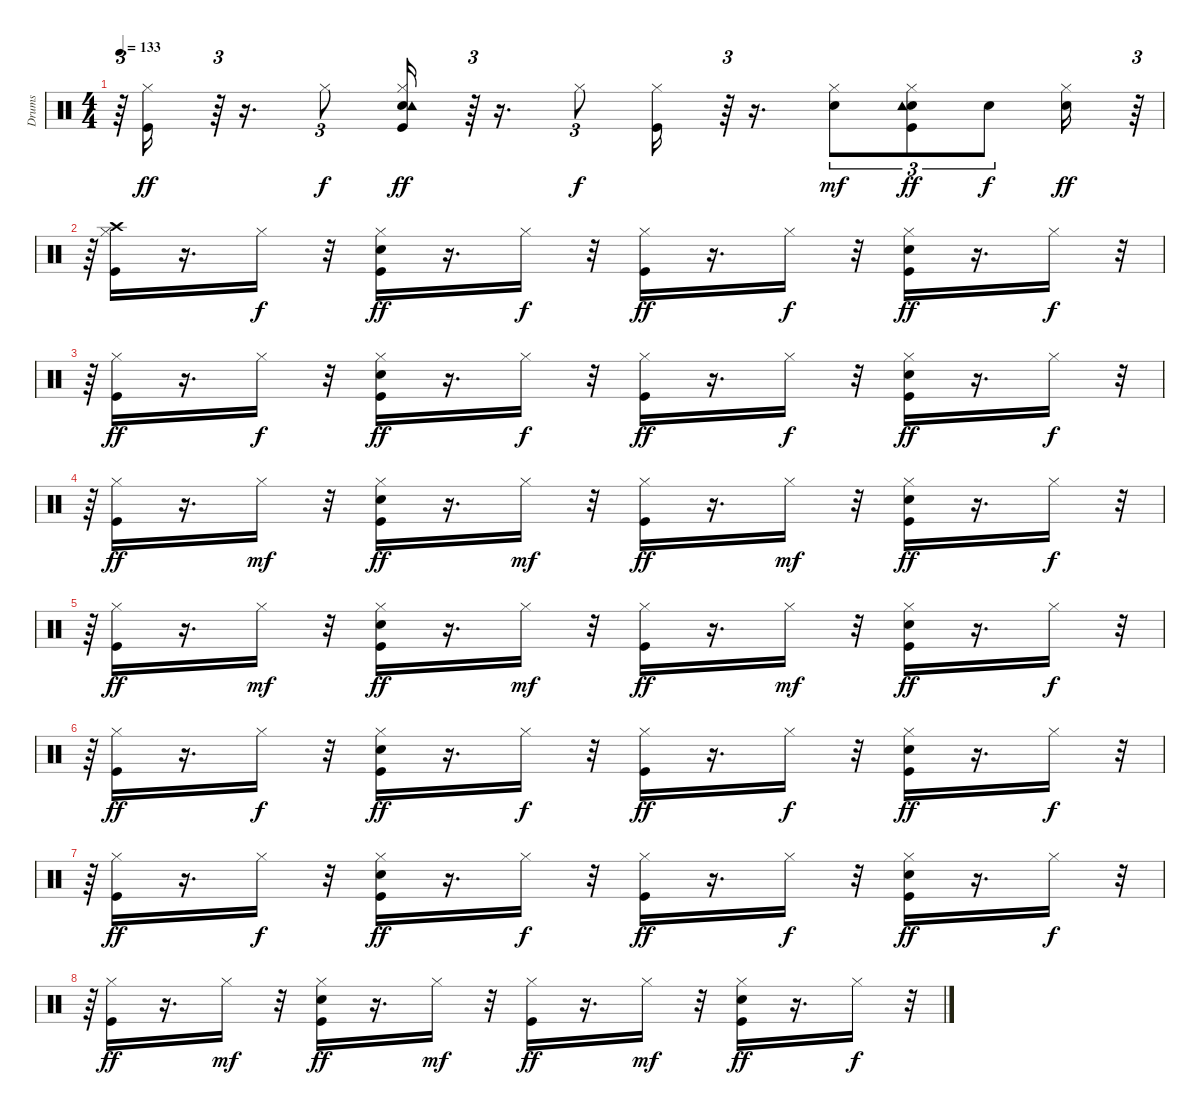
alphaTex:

\track ("Drums   " "Drums   ") {instrument percussion}
\staff {score}
\articulation defaults
\ts (4 4)
\tempo 133
\clef neutral
\ks c
r.64{tu (3 2) dy mp} ("Kick (hit)" "Hi-Hat (closed)").16{dy ff} r.64{tu (3 2)} r.16{d} "Hi-Hat (closed)".8{tu (3 2) dy f} ("Kick (hit)" "Snare (hit) 2" "Hi-Hat (closed)" "Tambourine (hit)").16{dy ff} r.64{tu (3 2)} r.16{d} "Hi-Hat (closed)".8{tu (3 2) dy f} ("Kick (hit)" "Hi-Hat (closed)").16 r.64{tu (3 2)} r.16{d} ("Snare (hit) 2" "Hi-Hat (closed)").8{tu (3 2) dy mf} ("Kick (hit)" "Snare (hit) 2" "Hi-Hat (closed)" "Tambourine (hit)").8{tu (3 2) dy ff} "Snare (hit) 2".8{tu (3 2) dy f} ("Snare (hit) 2" "Hi-Hat (closed)").16{dy ff} r.64{tu (3 2)} |
r.64{tu (3 2)} ("Kick (hit)" "Hi-Hat (closed)" "Crash high (hit)").16 r.16{d} "Hi-Hat (closed)".16{dy f} r.32 ("Kick (hit)" "Snare (hit) 2" "Hi-Hat (closed)").16{dy ff} r.16{d} "Hi-Hat (closed)".16{dy f} r.32 ("Kick (hit)" "Hi-Hat (closed)").16{dy ff} r.16{d} "Hi-Hat (closed)".16{dy f} r.32 ("Kick (hit)" "Snare (hit) 2" "Hi-Hat (closed)").16{dy ff} r.16{d} "Hi-Hat (closed)".16{dy f} r.32{tu (3 2)} |
r.64{tu (3 2)} ("Kick (hit)" "Hi-Hat (closed)").16{dy ff} r.16{d} "Hi-Hat (closed)".16{dy f} r.32 ("Kick (hit)" "Snare (hit) 2" "Hi-Hat (closed)").16{dy ff} r.16{d} "Hi-Hat (closed)".16{dy f} r.32 ("Kick (hit)" "Hi-Hat (closed)").16{dy ff} r.16{d} "Hi-Hat (closed)".16{dy f} r.32 ("Kick (hit)" "Snare (hit) 2" "Hi-Hat (closed)").16{dy ff} r.16{d} "Hi-Hat (closed)".16{dy f} r.32{tu (3 2)} |
r.64{tu (3 2)} ("Kick (hit)" "Hi-Hat (closed)").16{dy ff} r.16{d} "Hi-Hat (closed)".16{dy mf} r.32 ("Kick (hit)" "Snare (hit) 2" "Hi-Hat (closed)").16{dy ff} r.16{d} "Hi-Hat (closed)".16{dy mf} r.32 ("Kick (hit)" "Hi-Hat (closed)").16{dy ff} r.16{d} "Hi-Hat (closed)".16{dy mf} r.32 ("Kick (hit)" "Snare (hit) 2" "Hi-Hat (closed)").16{dy ff} r.16{d} "Hi-Hat (closed)".16{dy f} r.32{tu (3 2)} |
r.64{tu (3 2)} ("Kick (hit)" "Hi-Hat (closed)").16{dy ff} r.16{d} "Hi-Hat (closed)".16{dy mf} r.32 ("Kick (hit)" "Snare (hit) 2" "Hi-Hat (closed)").16{dy ff} r.16{d} "Hi-Hat (closed)".16{dy mf} r.32 ("Kick (hit)" "Hi-Hat (closed)").16{dy ff} r.16{d} "Hi-Hat (closed)".16{dy mf} r.32 ("Kick (hit)" "Snare (hit) 2" "Hi-Hat (closed)").16{dy ff} r.16{d} "Hi-Hat (closed)".16{dy f} r.32{tu (3 2)} |
r.64{tu (3 2)} ("Kick (hit)" "Hi-Hat (closed)").16{dy ff} r.16{d} "Hi-Hat (closed)".16{dy f} r.32 ("Kick (hit)" "Snare (hit) 2" "Hi-Hat (closed)").16{dy ff} r.16{d} "Hi-Hat (closed)".16{dy f} r.32 ("Kick (hit)" "Hi-Hat (closed)").16{dy ff} r.16{d} "Hi-Hat (closed)".16{dy f} r.32 ("Kick (hit)" "Snare (hit) 2" "Hi-Hat (closed)").16{dy ff} r.16{d} "Hi-Hat (closed)".16{dy f} r.32{tu (3 2)} |
r.64{tu (3 2)} ("Kick (hit)" "Hi-Hat (closed)").16{dy ff} r.16{d} "Hi-Hat (closed)".16{dy f} r.32 ("Kick (hit)" "Snare (hit) 2" "Hi-Hat (closed)").16{dy ff} r.16{d} "Hi-Hat (closed)".16{dy f} r.32 ("Kick (hit)" "Hi-Hat (closed)").16{dy ff} r.16{d} "Hi-Hat (closed)".16{dy f} r.32 ("Kick (hit)" "Snare (hit) 2" "Hi-Hat (closed)").16{dy ff} r.16{d} "Hi-Hat (closed)".16{dy f} r.32{tu (3 2)} |
r.64{tu (3 2)} ("Kick (hit)" "Hi-Hat (closed)").16{dy ff} r.16{d} "Hi-Hat (closed)".16{dy mf} r.32 ("Kick (hit)" "Snare (hit) 2" "Hi-Hat (closed)").16{dy ff} r.16{d} "Hi-Hat (closed)".16{dy mf} r.32 ("Kick (hit)" "Hi-Hat (closed)").16{dy ff} r.16{d} "Hi-Hat (closed)".16{dy mf} r.32 ("Kick (hit)" "Snare (hit) 2" "Hi-Hat (closed)").16{dy ff} r.16{d} "Hi-Hat (closed)".16{dy f} r.32{tu (3 2)}
